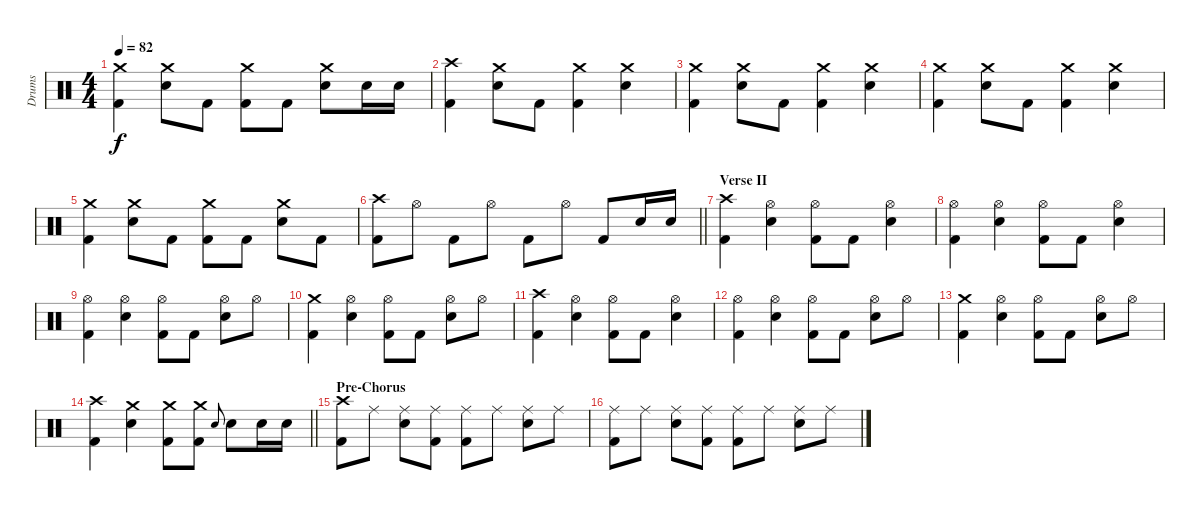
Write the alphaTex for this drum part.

\track ("Drums" "Drums") {instrument percussion}
\staff {score}
\articulation defaults
\ts (4 4)
\tempo 82
\clef neutral
\ks c
("Crash medium (hit)" "Kick (hit) 2").4{dy f} ("Crash medium (hit)" "Snare (hit) 2").8 "Kick (hit) 2".8 ("Crash medium (hit)" "Kick (hit) 2").8 "Kick (hit) 2".8 ("Crash medium (hit)" "Snare (hit) 2").8 "Snare (hit) 2".16 "Snare (hit) 2".16 |
("Crash high (hit)" "Kick (hit) 2").4 ("Crash medium (hit)" "Snare (hit) 2").8 "Kick (hit) 2".8 ("Crash medium (hit)" "Kick (hit) 2").4 ("Crash medium (hit)" "Snare (hit) 2").4 |
("Crash medium (hit)" "Kick (hit) 2").4 ("Crash medium (hit)" "Snare (hit) 2").8 "Kick (hit) 2".8 ("Crash medium (hit)" "Kick (hit) 2").4 ("Crash medium (hit)" "Snare (hit) 2").4 |
("Crash medium (hit)" "Kick (hit) 2").4 ("Crash medium (hit)" "Snare (hit) 2").8 "Kick (hit) 2".8 ("Crash medium (hit)" "Kick (hit) 2").4 ("Crash medium (hit)" "Snare (hit) 2").4 |
("Crash medium (hit)" "Kick (hit) 2").4 ("Crash medium (hit)" "Snare (hit) 2").8 "Kick (hit) 2".8 ("Crash medium (hit)" "Kick (hit) 2").8 "Kick (hit) 2".8 ("Crash medium (hit)" "Snare (hit) 2").8 "Kick (hit) 2".8 |
\barLineRight lightlight
("Crash high (hit)" "Kick (hit) 2").8 "Hi-Hat (open)".8 "Kick (hit) 2".8 "Hi-Hat (open)".8 "Kick (hit) 2".8 "Hi-Hat (open)".8 "Kick (hit) 2".8 "Snare (hit) 2".16 "Snare (hit) 2".16 |
\section ("" "Verse II")
("Crash high (hit)" "Kick (hit) 2").4 ("Hi-Hat (open)" "Snare (hit) 2").4 ("Hi-Hat (open)" "Kick (hit) 2").8 "Kick (hit) 2".8 ("Hi-Hat (open)" "Snare (hit) 2").4 |
("Hi-Hat (open)" "Kick (hit) 2").4 ("Hi-Hat (open)" "Snare (hit) 2").4 ("Hi-Hat (open)" "Kick (hit) 2").8 "Kick (hit) 2".8 ("Hi-Hat (open)" "Snare (hit) 2").4 |
("Hi-Hat (open)" "Kick (hit) 2").4 ("Hi-Hat (open)" "Snare (hit) 2").4 ("Hi-Hat (open)" "Kick (hit) 2").8 "Kick (hit) 2".8 ("Hi-Hat (open)" "Snare (hit) 2").8 "Hi-Hat (open)".8 |
("Crash medium (hit)" "Kick (hit) 2").4 ("Hi-Hat (open)" "Snare (hit) 2").4 ("Hi-Hat (open)" "Kick (hit) 2").8 "Kick (hit) 2".8 ("Hi-Hat (open)" "Snare (hit) 2").8 "Hi-Hat (open)".8 |
("Crash high (hit)" "Kick (hit) 2").4 ("Hi-Hat (open)" "Snare (hit) 2").4 ("Hi-Hat (open)" "Kick (hit) 2").8 "Kick (hit) 2".8 ("Hi-Hat (open)" "Snare (hit) 2").4 |
("Hi-Hat (open)" "Kick (hit) 2").4 ("Hi-Hat (open)" "Snare (hit) 2").4 ("Hi-Hat (open)" "Kick (hit) 2").8 "Kick (hit) 2".8 ("Hi-Hat (open)" "Snare (hit) 2").8 "Hi-Hat (open)".8 |
("Crash medium (hit)" "Kick (hit) 2").4 ("Hi-Hat (open)" "Snare (hit) 2").4 ("Hi-Hat (open)" "Kick (hit) 2").8 "Kick (hit) 2".8 ("Hi-Hat (open)" "Snare (hit) 2").8 "Hi-Hat (open)".8 |
\barLineRight lightlight
("Crash high (hit)" "Kick (hit) 2").4 ("Crash medium (hit)" "Snare (hit) 2").4 ("Crash medium (hit)" "Kick (hit) 2").8 ("Crash medium (hit)" "Kick (hit) 2").8 "Snare (hit) 2".8{gr onbeat} "Snare (hit) 2".8 "Snare (hit) 2".16 "Snare (hit) 2".16 |
\section ("" "Pre-Chorus")
("Crash high (hit)" "Kick (hit) 2").8 "Ride (middle)".8 ("Ride (middle)" "Snare (hit) 2").8 ("Ride (middle)" "Kick (hit) 2").8 ("Ride (middle)" "Kick (hit) 2").8 "Ride (middle)".8 ("Ride (middle)" "Snare (hit) 2").8 "Ride (middle)".8 |
("Ride (middle)" "Kick (hit) 2").8 "Ride (middle)".8 ("Ride (middle)" "Snare (hit) 2").8 ("Ride (middle)" "Kick (hit) 2").8 ("Ride (middle)" "Kick (hit) 2").8 "Ride (middle)".8 ("Ride (middle)" "Snare (hit) 2").8 "Ride (middle)".8
